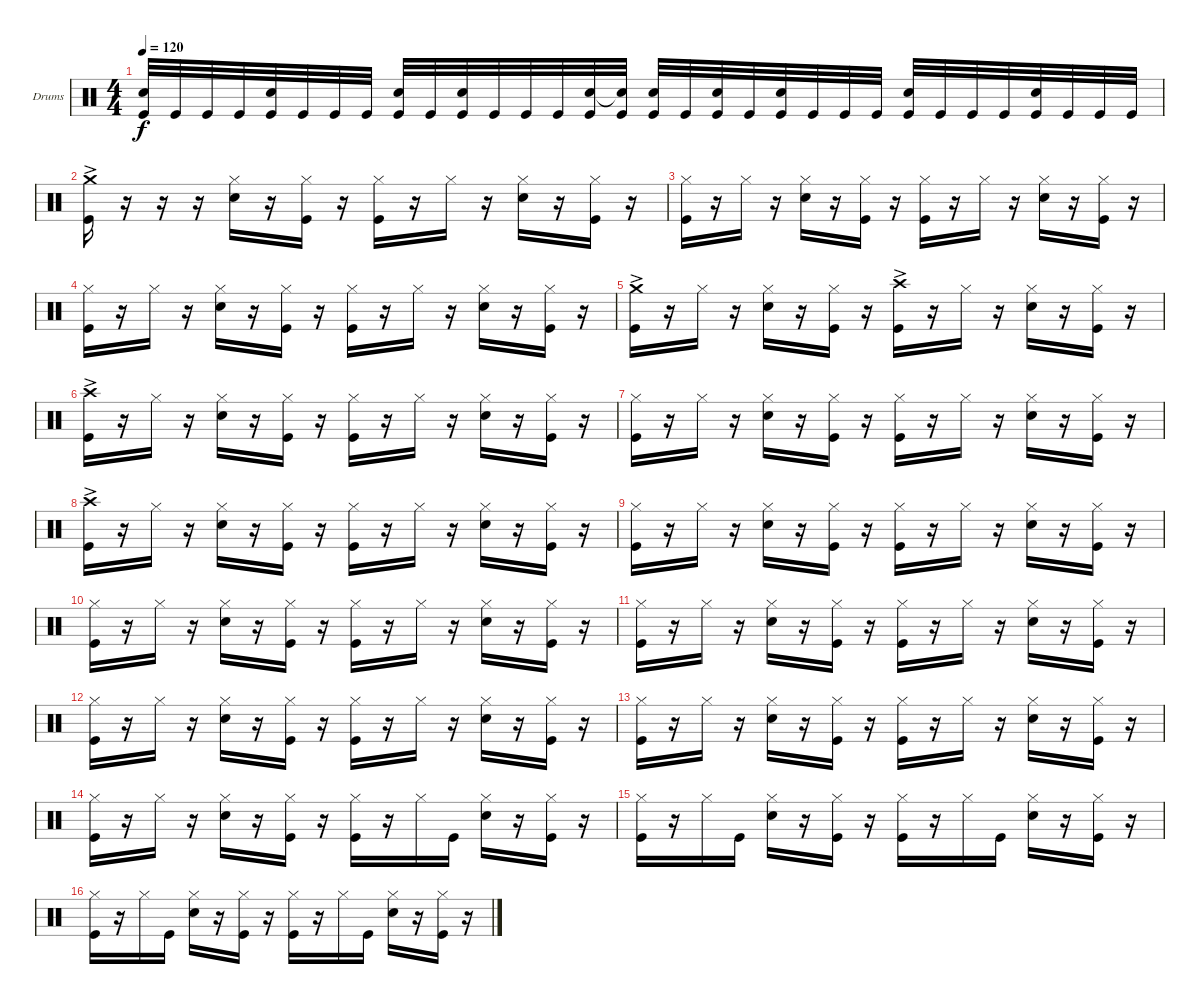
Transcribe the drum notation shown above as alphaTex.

\bracketExtendMode groupsimilarinstruments
\firstSystemTrackNameOrientation horizontal
\otherSystemsTrackNameOrientation horizontal
\track ("Drumkit" "Drums") {instrument percussion}
\staff {score}
\articulation defaults
\ts (4 4)
\tempo 120
\clef neutral
\ks c
("Snare (hit) 2" "Kick (hit)").32{dy f} "Kick (hit)".32 "Kick (hit)".32 "Kick (hit)".32 ("Snare (hit) 2" "Kick (hit)").32 "Kick (hit)".32 "Kick (hit)".32 "Kick (hit)".32 ("Snare (hit) 2" "Kick (hit)").32 "Kick (hit)".32 ("Snare (hit) 2" "Kick (hit)").32 "Kick (hit)".32 "Kick (hit)".32 "Kick (hit)".32 ("Snare (hit) 2" "Kick (hit)").32 ("Snare (hit) 2"{t} "Kick (hit)").32 ("Snare (hit) 2" "Kick (hit)").32 "Kick (hit)".32 ("Snare (hit) 2" "Kick (hit)").32 "Kick (hit)".32 ("Snare (hit) 2" "Kick (hit)").32 "Kick (hit)".32 "Kick (hit)".32 "Kick (hit)".32 ("Snare (hit) 2" "Kick (hit)").32 "Kick (hit)".32 "Kick (hit)".32 "Kick (hit)".32 ("Snare (hit) 2" "Kick (hit)").32 "Kick (hit)".32 "Kick (hit)".32 "Kick (hit)".32 |
("Crash medium (hit)"{ac} "Kick (hit)").16 r.16 r.16 r.16 ("Hi-Hat (closed)" "Snare (hit) 2").16 r.16 ("Hi-Hat (closed)" "Kick (hit)").16 r.16 ("Hi-Hat (closed)" "Kick (hit)").16 r.16 "Hi-Hat (closed)".16 r.16 ("Hi-Hat (closed)" "Snare (hit) 2").16 r.16 ("Hi-Hat (closed)" "Kick (hit)").16 r.16 |
("Hi-Hat (closed)" "Kick (hit)").16 r.16 "Hi-Hat (closed)".16 r.16 ("Hi-Hat (closed)" "Snare (hit) 2").16 r.16 ("Hi-Hat (closed)" "Kick (hit)").16 r.16 ("Hi-Hat (closed)" "Kick (hit)").16 r.16 "Hi-Hat (closed)".16 r.16 ("Hi-Hat (closed)" "Snare (hit) 2").16 r.16 ("Hi-Hat (closed)" "Kick (hit)").16 r.16 |
("Hi-Hat (closed)" "Kick (hit)").16 r.16 "Hi-Hat (closed)".16 r.16 ("Hi-Hat (closed)" "Snare (hit) 2").16 r.16 ("Hi-Hat (closed)" "Kick (hit)").16 r.16 ("Hi-Hat (closed)" "Kick (hit)").16 r.16 "Hi-Hat (closed)".16 r.16 ("Hi-Hat (closed)" "Snare (hit) 2").16 r.16 ("Hi-Hat (closed)" "Kick (hit)").16 r.16 |
("Crash medium (hit)"{ac} "Kick (hit)").16 r.16 "Hi-Hat (closed)".16 r.16 ("Hi-Hat (closed)" "Snare (hit) 2").16 r.16 ("Hi-Hat (closed)" "Kick (hit)").16 r.16 ("Crash high (hit)"{ac} "Kick (hit)").16 r.16 "Hi-Hat (closed)".16 r.16 ("Hi-Hat (closed)" "Snare (hit) 2").16 r.16 ("Hi-Hat (closed)" "Kick (hit)").16 r.16 |
("Crash high (hit)"{ac} "Kick (hit)").16 r.16 "Hi-Hat (closed)".16 r.16 ("Hi-Hat (closed)" "Snare (hit) 2").16 r.16 ("Hi-Hat (closed)" "Kick (hit)").16 r.16 ("Hi-Hat (closed)" "Kick (hit)").16 r.16 "Hi-Hat (closed)".16 r.16 ("Hi-Hat (closed)" "Snare (hit) 2").16 r.16 ("Hi-Hat (closed)" "Kick (hit)").16 r.16 |
("Hi-Hat (closed)" "Kick (hit)").16 r.16 "Hi-Hat (closed)".16 r.16 ("Hi-Hat (closed)" "Snare (hit) 2").16 r.16 ("Hi-Hat (closed)" "Kick (hit)").16 r.16 ("Hi-Hat (closed)" "Kick (hit)").16 r.16 "Hi-Hat (closed)".16 r.16 ("Hi-Hat (closed)" "Snare (hit) 2").16 r.16 ("Hi-Hat (closed)" "Kick (hit)").16 r.16 |
("Crash high (hit)"{ac} "Kick (hit)").16 r.16 "Hi-Hat (closed)".16 r.16 ("Hi-Hat (closed)" "Snare (hit) 2").16 r.16 ("Hi-Hat (closed)" "Kick (hit)").16 r.16 ("Hi-Hat (closed)" "Kick (hit)").16 r.16 "Hi-Hat (closed)".16 r.16 ("Hi-Hat (closed)" "Snare (hit) 2").16 r.16 ("Hi-Hat (closed)" "Kick (hit)").16 r.16 |
("Hi-Hat (closed)" "Kick (hit)").16 r.16 "Hi-Hat (closed)".16 r.16 ("Hi-Hat (closed)" "Snare (hit) 2").16 r.16 ("Hi-Hat (closed)" "Kick (hit)").16 r.16 ("Hi-Hat (closed)" "Kick (hit)").16 r.16 "Hi-Hat (closed)".16 r.16 ("Hi-Hat (closed)" "Snare (hit) 2").16 r.16 ("Hi-Hat (closed)" "Kick (hit)").16 r.16 |
("Hi-Hat (closed)" "Kick (hit)").16 r.16 "Hi-Hat (closed)".16 r.16 ("Hi-Hat (closed)" "Snare (hit) 2").16 r.16 ("Hi-Hat (closed)" "Kick (hit)").16 r.16 ("Hi-Hat (closed)" "Kick (hit)").16 r.16 "Hi-Hat (closed)".16 r.16 ("Hi-Hat (closed)" "Snare (hit) 2").16 r.16 ("Hi-Hat (closed)" "Kick (hit)").16 r.16 |
("Hi-Hat (closed)" "Kick (hit)").16 r.16 "Hi-Hat (closed)".16 r.16 ("Hi-Hat (closed)" "Snare (hit) 2").16 r.16 ("Hi-Hat (closed)" "Kick (hit)").16 r.16 ("Hi-Hat (closed)" "Kick (hit)").16 r.16 "Hi-Hat (closed)".16 r.16 ("Hi-Hat (closed)" "Snare (hit) 2").16 r.16 ("Hi-Hat (closed)" "Kick (hit)").16 r.16 |
("Hi-Hat (closed)" "Kick (hit)").16 r.16 "Hi-Hat (closed)".16 r.16 ("Hi-Hat (closed)" "Snare (hit) 2").16 r.16 ("Hi-Hat (closed)" "Kick (hit)").16 r.16 ("Hi-Hat (closed)" "Kick (hit)").16 r.16 "Hi-Hat (closed)".16 r.16 ("Hi-Hat (closed)" "Snare (hit) 2").16 r.16 ("Hi-Hat (closed)" "Kick (hit)").16 r.16 |
("Hi-Hat (closed)" "Kick (hit)").16 r.16 "Hi-Hat (closed)".16 r.16 ("Hi-Hat (closed)" "Snare (hit) 2").16 r.16 ("Hi-Hat (closed)" "Kick (hit)").16 r.16 ("Hi-Hat (closed)" "Kick (hit)").16 r.16 "Hi-Hat (closed)".16 r.16 ("Hi-Hat (closed)" "Snare (hit) 2").16 r.16 ("Hi-Hat (closed)" "Kick (hit)").16 r.16 |
("Hi-Hat (closed)" "Kick (hit)").16 r.16 "Hi-Hat (closed)".16 r.16 ("Hi-Hat (closed)" "Snare (hit) 2").16 r.16 ("Hi-Hat (closed)" "Kick (hit)").16 r.16 ("Hi-Hat (closed)" "Kick (hit)").16 r.16 "Hi-Hat (closed)".16 "Kick (hit)".16 ("Hi-Hat (closed)" "Snare (hit) 2").16 r.16 ("Hi-Hat (closed)" "Kick (hit)").16 r.16 |
("Hi-Hat (closed)" "Kick (hit)").16 r.16 "Hi-Hat (closed)".16 "Kick (hit)".16 ("Hi-Hat (closed)" "Snare (hit) 2").16 r.16 ("Hi-Hat (closed)" "Kick (hit)").16 r.16 ("Hi-Hat (closed)" "Kick (hit)").16 r.16 "Hi-Hat (closed)".16 "Kick (hit)".16 ("Hi-Hat (closed)" "Snare (hit) 2").16 r.16 ("Hi-Hat (closed)" "Kick (hit)").16 r.16 |
("Hi-Hat (closed)" "Kick (hit)").16 r.16 "Hi-Hat (closed)".16 "Kick (hit)".16 ("Hi-Hat (closed)" "Snare (hit) 2").16 r.16 ("Hi-Hat (closed)" "Kick (hit)").16 r.16 ("Hi-Hat (closed)" "Kick (hit)").16 r.16 "Hi-Hat (closed)".16 "Kick (hit)".16 ("Hi-Hat (closed)" "Snare (hit) 2").16 r.16 ("Hi-Hat (closed)" "Kick (hit)").16 r.16
